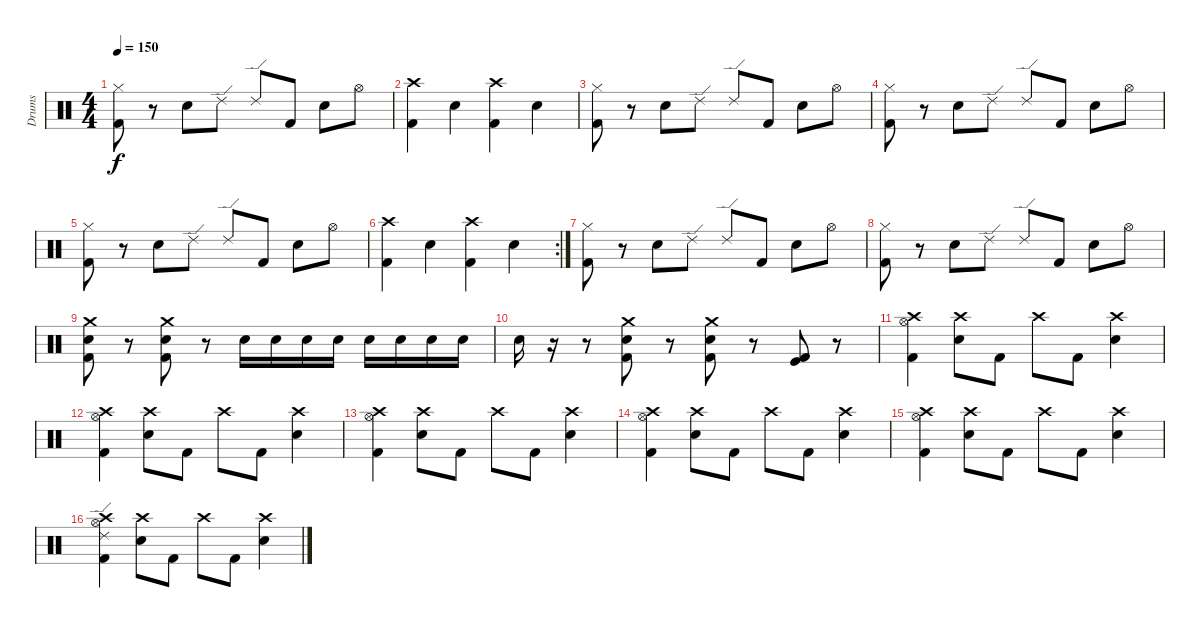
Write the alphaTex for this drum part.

\track ("Drums" "Drums") {instrument percussion}
\staff {score}
\articulation defaults
\ts (4 4)
\tempo 150
\clef neutral
\ks c
("Hi-Hat (closed)" "Kick (hit) 2").8{dy f} r.8 "Electric Snare (hit)".8 "Ride (edge) 2".8 "Ride (edge) 2".8 "Kick (hit) 2".8 "Electric Snare (hit)".8 "Hi-Hat (open)".8 |
("Crash high (hit)" "Kick (hit) 2").4 "Electric Snare (hit)".4 ("Crash high (hit)" "Kick (hit) 2").4 "Electric Snare (hit)".4 |
("Hi-Hat (closed)" "Kick (hit) 2").8 r.8 "Electric Snare (hit)".8 "Ride (edge) 2".8 "Ride (edge) 2".8 "Kick (hit) 2".8 "Electric Snare (hit)".8 "Hi-Hat (open)".8 |
("Hi-Hat (closed)" "Kick (hit) 2").8 r.8 "Electric Snare (hit)".8 "Ride (edge) 2".8 "Ride (edge) 2".8 "Kick (hit) 2".8 "Electric Snare (hit)".8 "Hi-Hat (open)".8 |
("Hi-Hat (closed)" "Kick (hit) 2").8 r.8 "Electric Snare (hit)".8 "Ride (edge) 2".8 "Ride (edge) 2".8 "Kick (hit) 2".8 "Electric Snare (hit)".8 "Hi-Hat (open)".8 |
\rc 2
("Crash high (hit)" "Kick (hit) 2").4 "Electric Snare (hit)".4 ("Crash high (hit)" "Kick (hit) 2").4 "Electric Snare (hit)".4 |
("Hi-Hat (closed)" "Kick (hit) 2").8 r.8 "Electric Snare (hit)".8 "Ride (edge) 2".8 "Ride (edge) 2".8 "Kick (hit) 2".8 "Electric Snare (hit)".8 "Hi-Hat (open)".8 |
("Hi-Hat (closed)" "Kick (hit) 2").8 r.8 "Electric Snare (hit)".8 "Ride (edge) 2".8 "Ride (edge) 2".8 "Kick (hit) 2".8 "Electric Snare (hit)".8 "Hi-Hat (open)".8 |
("Crash medium (hit)" "Kick (hit) 2" "Electric Snare (hit)").8 r.8 ("Crash medium (hit)" "Kick (hit) 2" "Electric Snare (hit)").8 r.8 "Electric Snare (hit)".16 "Electric Snare (hit)".16 "Electric Snare (hit)".16 "Electric Snare (hit)".16 "Electric Snare (hit)".16 "Electric Snare (hit)".16 "Electric Snare (hit)".16 "Electric Snare (hit)".16 |
"Electric Snare (hit)".16 r.16 r.8 ("Crash medium (hit)" "Kick (hit) 2" "Electric Snare (hit)").8 r.8 ("Crash medium (hit)" "Kick (hit) 2" "Electric Snare (hit)").8 r.8 ("Kick (hit) 2" "Kick (hit)").8 r.8 |
("Crash high (hit)" "Kick (hit) 2" "Hi-Hat (open)").4 ("Crash high (hit)" "Electric Snare (hit)").8 "Kick (hit) 2".8 "Crash high (hit)".8 "Kick (hit) 2".8 ("Crash high (hit)" "Electric Snare (hit)").4 |
("Crash high (hit)" "Kick (hit) 2" "Hi-Hat (open)").4 ("Crash high (hit)" "Electric Snare (hit)").8 "Kick (hit) 2".8 "Crash high (hit)".8 "Kick (hit) 2".8 ("Crash high (hit)" "Electric Snare (hit)").4 |
("Crash high (hit)" "Kick (hit) 2" "Hi-Hat (open)").4 ("Crash high (hit)" "Electric Snare (hit)").8 "Kick (hit) 2".8 "Crash high (hit)".8 "Kick (hit) 2".8 ("Crash high (hit)" "Electric Snare (hit)").4 |
("Crash high (hit)" "Kick (hit) 2" "Hi-Hat (open)").4 ("Crash high (hit)" "Electric Snare (hit)").8 "Kick (hit) 2".8 "Crash high (hit)".8 "Kick (hit) 2".8 ("Crash high (hit)" "Electric Snare (hit)").4 |
("Crash high (hit)" "Kick (hit) 2" "Hi-Hat (open)").4 ("Crash high (hit)" "Electric Snare (hit)").8 "Kick (hit) 2".8 "Crash high (hit)".8 "Kick (hit) 2".8 ("Crash high (hit)" "Electric Snare (hit)").4 |
("Crash high (hit)" "Kick (hit) 2" "Hi-Hat (open)" "Ride (edge) 2").4 ("Crash high (hit)" "Electric Snare (hit)").8 "Kick (hit) 2".8 "Crash high (hit)".8 "Kick (hit) 2".8 ("Crash high (hit)" "Electric Snare (hit)").4
